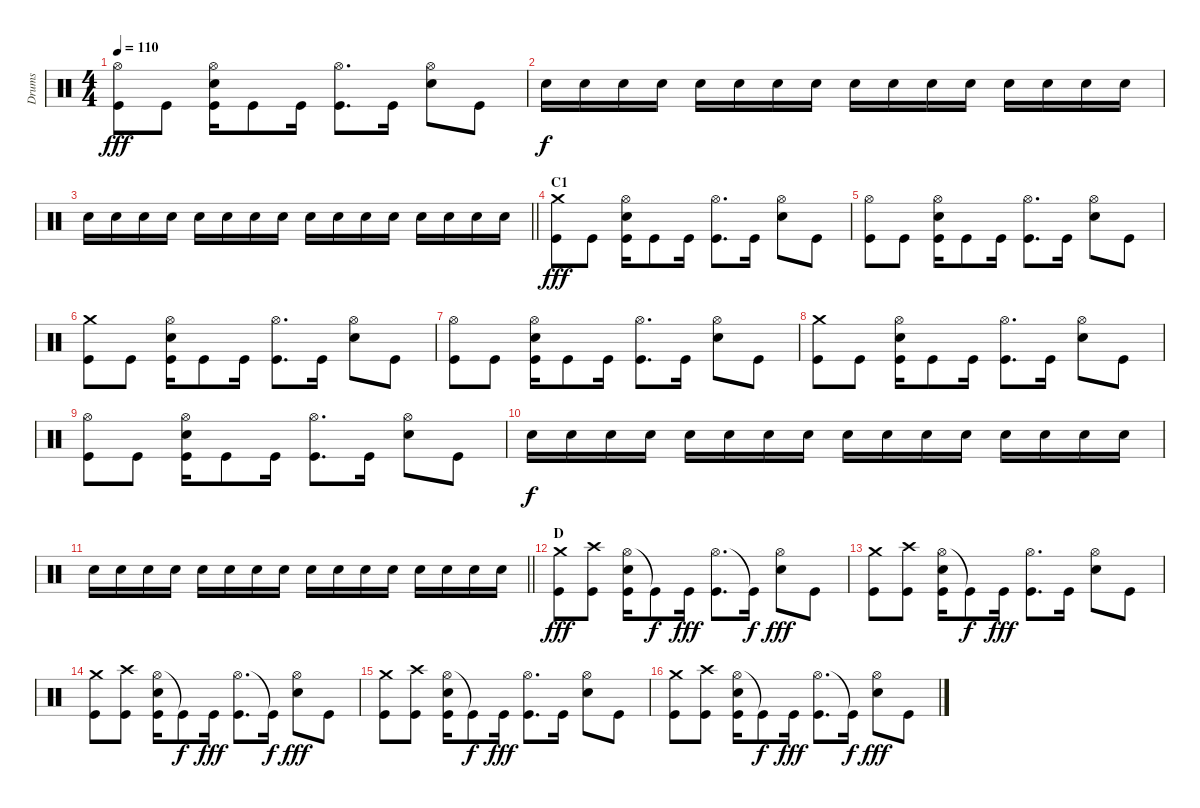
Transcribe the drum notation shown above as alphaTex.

\track ("Drums" "Drums") {instrument percussion}
\staff {score}
\articulation defaults
\ts (4 4)
\tempo 110
\clef neutral
\ks c
("Hi-Hat (open)" "Kick (hit)").8{dy fff} "Kick (hit)".8 ("Hi-Hat (open)" "Electric Snare (hit)" "Kick (hit)").16 "Kick (hit)".8 "Kick (hit)".16 ("Hi-Hat (open)" "Kick (hit)").8{d} "Kick (hit)".16 ("Hi-Hat (open)" "Electric Snare (hit)").8 "Kick (hit)".8 |
"Electric Snare (hit)".16{dy f} "Electric Snare (hit)".16 "Electric Snare (hit)".16 "Electric Snare (hit)".16 "Electric Snare (hit)".16 "Electric Snare (hit)".16 "Electric Snare (hit)".16 "Electric Snare (hit)".16 "Electric Snare (hit)".16 "Electric Snare (hit)".16 "Electric Snare (hit)".16 "Electric Snare (hit)".16 "Electric Snare (hit)".16 "Electric Snare (hit)".16 "Electric Snare (hit)".16 "Electric Snare (hit)".16 |
\barLineRight lightlight "Electric Snare (hit)".16 "Electric Snare (hit)".16 "Electric Snare (hit)".16 "Electric Snare (hit)".16 "Electric Snare (hit)".16 "Electric Snare (hit)".16 "Electric Snare (hit)".16 "Electric Snare (hit)".16 "Electric Snare (hit)".16 "Electric Snare (hit)".16 "Electric Snare (hit)".16 "Electric Snare (hit)".16 "Electric Snare (hit)".16 "Electric Snare (hit)".16 "Electric Snare (hit)".16 "Electric Snare (hit)".16
|
\section ("" "C1")
("Crash medium (hit)" "Kick (hit)").8{dy fff} "Kick (hit)".8 ("Hi-Hat (open)" "Electric Snare (hit)" "Kick (hit)").16 "Kick (hit)".8 "Kick (hit)".16 ("Hi-Hat (open)" "Kick (hit)").8{d} "Kick (hit)".16 ("Hi-Hat (open)" "Electric Snare (hit)").8 "Kick (hit)".8 |
("Hi-Hat (open)" "Kick (hit)").8 "Kick (hit)".8 ("Hi-Hat (open)" "Electric Snare (hit)" "Kick (hit)").16 "Kick (hit)".8 "Kick (hit)".16 ("Hi-Hat (open)" "Kick (hit)").8{d} "Kick (hit)".16 ("Hi-Hat (open)" "Electric Snare (hit)").8 "Kick (hit)".8 |
("Crash medium (hit)" "Kick (hit)").8 "Kick (hit)".8 ("Hi-Hat (open)" "Electric Snare (hit)" "Kick (hit)").16 "Kick (hit)".8 "Kick (hit)".16 ("Hi-Hat (open)" "Kick (hit)").8{d} "Kick (hit)".16 ("Hi-Hat (open)" "Electric Snare (hit)").8 "Kick (hit)".8 |
("Hi-Hat (open)" "Kick (hit)").8 "Kick (hit)".8 ("Hi-Hat (open)" "Electric Snare (hit)" "Kick (hit)").16 "Kick (hit)".8 "Kick (hit)".16 ("Hi-Hat (open)" "Kick (hit)").8{d} "Kick (hit)".16 ("Hi-Hat (open)" "Electric Snare (hit)").8 "Kick (hit)".8 |
("Crash medium (hit)" "Kick (hit)").8 "Kick (hit)".8 ("Hi-Hat (open)" "Electric Snare (hit)" "Kick (hit)").16 "Kick (hit)".8 "Kick (hit)".16 ("Hi-Hat (open)" "Kick (hit)").8{d} "Kick (hit)".16 ("Hi-Hat (open)" "Electric Snare (hit)").8 "Kick (hit)".8 |
("Hi-Hat (open)" "Kick (hit)").8 "Kick (hit)".8 ("Hi-Hat (open)" "Electric Snare (hit)" "Kick (hit)").16 "Kick (hit)".8 "Kick (hit)".16 ("Hi-Hat (open)" "Kick (hit)").8{d} "Kick (hit)".16 ("Hi-Hat (open)" "Electric Snare (hit)").8 "Kick (hit)".8 |
"Electric Snare (hit)".16{dy f} "Electric Snare (hit)".16 "Electric Snare (hit)".16 "Electric Snare (hit)".16 "Electric Snare (hit)".16 "Electric Snare (hit)".16 "Electric Snare (hit)".16 "Electric Snare (hit)".16 "Electric Snare (hit)".16 "Electric Snare (hit)".16 "Electric Snare (hit)".16 "Electric Snare (hit)".16 "Electric Snare (hit)".16 "Electric Snare (hit)".16 "Electric Snare (hit)".16 "Electric Snare (hit)".16 |
\barLineRight lightlight "Electric Snare (hit)".16 "Electric Snare (hit)".16 "Electric Snare (hit)".16 "Electric Snare (hit)".16 "Electric Snare (hit)".16 "Electric Snare (hit)".16 "Electric Snare (hit)".16 "Electric Snare (hit)".16 "Electric Snare (hit)".16 "Electric Snare (hit)".16 "Electric Snare (hit)".16 "Electric Snare (hit)".16 "Electric Snare (hit)".16 "Electric Snare (hit)".16 "Electric Snare (hit)".16 "Electric Snare (hit)".16
|
\section ("" "D")
("Crash medium (hit)" "Kick (hit)").8{dy fff} ("Crash high (hit)" "Kick (hit)").8 ("Hi-Hat (open)" "Electric Snare (hit)" "Kick (hit)").16 "Kick (hit)"{t}.8{dy f} "Kick (hit)".16{dy fff} ("Hi-Hat (open)" "Kick (hit)").8{d} "Kick (hit)"{t}.16{dy f} ("Hi-Hat (open)" "Electric Snare (hit)").8{dy fff} "Kick (hit)".8 |
("Crash medium (hit)" "Kick (hit)").8 ("Crash high (hit)" "Kick (hit)").8 ("Hi-Hat (open)" "Electric Snare (hit)" "Kick (hit)").16 "Kick (hit)"{t}.8{dy f} "Kick (hit)".16{dy fff} ("Hi-Hat (open)" "Kick (hit)").8{d} "Kick (hit)".16 ("Hi-Hat (open)" "Electric Snare (hit)").8 "Kick (hit)".8 |
("Crash medium (hit)" "Kick (hit)").8 ("Crash high (hit)" "Kick (hit)").8 ("Hi-Hat (open)" "Electric Snare (hit)" "Kick (hit)").16 "Kick (hit)"{t}.8{dy f} "Kick (hit)".16{dy fff} ("Hi-Hat (open)" "Kick (hit)").8{d} "Kick (hit)"{t}.16{dy f} ("Hi-Hat (open)" "Electric Snare (hit)").8{dy fff} "Kick (hit)".8 |
("Crash medium (hit)" "Kick (hit)").8 ("Crash high (hit)" "Kick (hit)").8 ("Hi-Hat (open)" "Electric Snare (hit)" "Kick (hit)").16 "Kick (hit)"{t}.8{dy f} "Kick (hit)".16{dy fff} ("Hi-Hat (open)" "Kick (hit)").8{d} "Kick (hit)".16 ("Hi-Hat (open)" "Electric Snare (hit)").8 "Kick (hit)".8 |
("Crash medium (hit)" "Kick (hit)").8 ("Crash high (hit)" "Kick (hit)").8 ("Hi-Hat (open)" "Electric Snare (hit)" "Kick (hit)").16 "Kick (hit)"{t}.8{dy f} "Kick (hit)".16{dy fff} ("Hi-Hat (open)" "Kick (hit)").8{d} "Kick (hit)"{t}.16{dy f} ("Hi-Hat (open)" "Electric Snare (hit)").8{dy fff} "Kick (hit)".8
